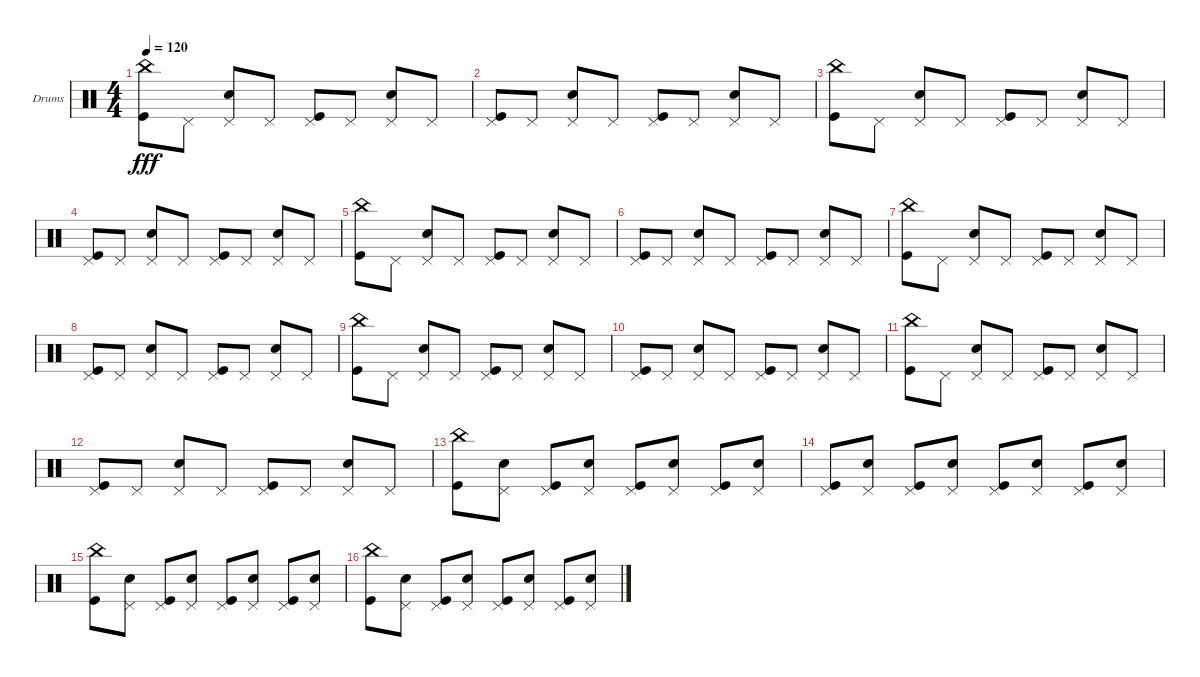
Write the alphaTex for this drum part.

\defaultSystemsLayout 4
\bracketExtendMode groupsimilarinstruments
\firstSystemTrackNameOrientation horizontal
\otherSystemsTrackNameOrientation horizontal
\track ("Drumkit" "Drums") {instrument percussion}
\staff {score}
\articulation defaults
\ts (4 4)
\tempo 120
\clef neutral
\ks c
("Kick (hit)" "China (hit)").8{dy fff} "Pedal Hi-Hat (hit)".8 ("Snare (hit) 2" "Pedal Hi-Hat (hit)").8 "Pedal Hi-Hat (hit)".8 ("Kick (hit)" "Pedal Hi-Hat (hit)").8 "Pedal Hi-Hat (hit)".8 ("Snare (hit) 2" "Pedal Hi-Hat (hit)").8 "Pedal Hi-Hat (hit)".8 |
("Kick (hit)" "Pedal Hi-Hat (hit)").8 "Pedal Hi-Hat (hit)".8 ("Snare (hit) 2" "Pedal Hi-Hat (hit)").8 "Pedal Hi-Hat (hit)".8 ("Kick (hit)" "Pedal Hi-Hat (hit)").8 "Pedal Hi-Hat (hit)".8 ("Snare (hit) 2" "Pedal Hi-Hat (hit)").8 "Pedal Hi-Hat (hit)".8 |
("Kick (hit)" "China (hit)").8 "Pedal Hi-Hat (hit)".8 ("Snare (hit) 2" "Pedal Hi-Hat (hit)").8 "Pedal Hi-Hat (hit)".8 ("Kick (hit)" "Pedal Hi-Hat (hit)").8 "Pedal Hi-Hat (hit)".8 ("Snare (hit) 2" "Pedal Hi-Hat (hit)").8 "Pedal Hi-Hat (hit)".8 |
("Kick (hit)" "Pedal Hi-Hat (hit)").8 "Pedal Hi-Hat (hit)".8 ("Snare (hit) 2" "Pedal Hi-Hat (hit)").8 "Pedal Hi-Hat (hit)".8 ("Kick (hit)" "Pedal Hi-Hat (hit)").8 "Pedal Hi-Hat (hit)".8 ("Snare (hit) 2" "Pedal Hi-Hat (hit)").8 "Pedal Hi-Hat (hit)".8 |
("Kick (hit)" "China (hit)").8 "Pedal Hi-Hat (hit)".8 ("Snare (hit) 2" "Pedal Hi-Hat (hit)").8 "Pedal Hi-Hat (hit)".8 ("Kick (hit)" "Pedal Hi-Hat (hit)").8 "Pedal Hi-Hat (hit)".8 ("Snare (hit) 2" "Pedal Hi-Hat (hit)").8 "Pedal Hi-Hat (hit)".8 |
("Kick (hit)" "Pedal Hi-Hat (hit)").8 "Pedal Hi-Hat (hit)".8 ("Snare (hit) 2" "Pedal Hi-Hat (hit)").8 "Pedal Hi-Hat (hit)".8 ("Kick (hit)" "Pedal Hi-Hat (hit)").8 "Pedal Hi-Hat (hit)".8 ("Snare (hit) 2" "Pedal Hi-Hat (hit)").8 "Pedal Hi-Hat (hit)".8 |
("Kick (hit)" "China (hit)").8 "Pedal Hi-Hat (hit)".8 ("Snare (hit) 2" "Pedal Hi-Hat (hit)").8 "Pedal Hi-Hat (hit)".8 ("Kick (hit)" "Pedal Hi-Hat (hit)").8 "Pedal Hi-Hat (hit)".8 ("Snare (hit) 2" "Pedal Hi-Hat (hit)").8 "Pedal Hi-Hat (hit)".8 |
("Kick (hit)" "Pedal Hi-Hat (hit)").8 "Pedal Hi-Hat (hit)".8 ("Snare (hit) 2" "Pedal Hi-Hat (hit)").8 "Pedal Hi-Hat (hit)".8 ("Kick (hit)" "Pedal Hi-Hat (hit)").8 "Pedal Hi-Hat (hit)".8 ("Snare (hit) 2" "Pedal Hi-Hat (hit)").8 "Pedal Hi-Hat (hit)".8 |
("Kick (hit)" "China (hit)").8 "Pedal Hi-Hat (hit)".8 ("Snare (hit) 2" "Pedal Hi-Hat (hit)").8 "Pedal Hi-Hat (hit)".8 ("Kick (hit)" "Pedal Hi-Hat (hit)").8 "Pedal Hi-Hat (hit)".8 ("Snare (hit) 2" "Pedal Hi-Hat (hit)").8 "Pedal Hi-Hat (hit)".8 |
("Kick (hit)" "Pedal Hi-Hat (hit)").8 "Pedal Hi-Hat (hit)".8 ("Snare (hit) 2" "Pedal Hi-Hat (hit)").8 "Pedal Hi-Hat (hit)".8 ("Kick (hit)" "Pedal Hi-Hat (hit)").8 "Pedal Hi-Hat (hit)".8 ("Snare (hit) 2" "Pedal Hi-Hat (hit)").8 "Pedal Hi-Hat (hit)".8 |
("Kick (hit)" "China (hit)").8 "Pedal Hi-Hat (hit)".8 ("Snare (hit) 2" "Pedal Hi-Hat (hit)").8 "Pedal Hi-Hat (hit)".8 ("Kick (hit)" "Pedal Hi-Hat (hit)").8 "Pedal Hi-Hat (hit)".8 ("Snare (hit) 2" "Pedal Hi-Hat (hit)").8 "Pedal Hi-Hat (hit)".8 |
("Kick (hit)" "Pedal Hi-Hat (hit)").8 "Pedal Hi-Hat (hit)".8 ("Snare (hit) 2" "Pedal Hi-Hat (hit)").8 "Pedal Hi-Hat (hit)".8 ("Kick (hit)" "Pedal Hi-Hat (hit)").8 "Pedal Hi-Hat (hit)".8 ("Snare (hit) 2" "Pedal Hi-Hat (hit)").8 "Pedal Hi-Hat (hit)".8 |
("Kick (hit)" "China (hit)").8 ("Pedal Hi-Hat (hit)" "Snare (hit) 2").8 ("Pedal Hi-Hat (hit)" "Kick (hit)").8 ("Pedal Hi-Hat (hit)" "Snare (hit) 2").8 ("Kick (hit)" "Pedal Hi-Hat (hit)").8 ("Pedal Hi-Hat (hit)" "Snare (hit) 2").8 ("Pedal Hi-Hat (hit)" "Kick (hit)").8 ("Pedal Hi-Hat (hit)" "Snare (hit) 2").8 |
("Kick (hit)" "Pedal Hi-Hat (hit)").8 ("Pedal Hi-Hat (hit)" "Snare (hit) 2").8 ("Pedal Hi-Hat (hit)" "Kick (hit)").8 ("Pedal Hi-Hat (hit)" "Snare (hit) 2").8 ("Kick (hit)" "Pedal Hi-Hat (hit)").8 ("Pedal Hi-Hat (hit)" "Snare (hit) 2").8 ("Pedal Hi-Hat (hit)" "Kick (hit)").8 ("Pedal Hi-Hat (hit)" "Snare (hit) 2").8 |
("Kick (hit)" "China (hit)").8 ("Pedal Hi-Hat (hit)" "Snare (hit) 2").8 ("Pedal Hi-Hat (hit)" "Kick (hit)").8 ("Pedal Hi-Hat (hit)" "Snare (hit) 2").8 ("Kick (hit)" "Pedal Hi-Hat (hit)").8 ("Pedal Hi-Hat (hit)" "Snare (hit) 2").8 ("Pedal Hi-Hat (hit)" "Kick (hit)").8 ("Pedal Hi-Hat (hit)" "Snare (hit) 2").8 |
("Kick (hit)" "China (hit)").8 ("Pedal Hi-Hat (hit)" "Snare (hit) 2").8 ("Pedal Hi-Hat (hit)" "Kick (hit)").8 ("Pedal Hi-Hat (hit)" "Snare (hit) 2").8 ("Kick (hit)" "Pedal Hi-Hat (hit)").8 ("Pedal Hi-Hat (hit)" "Snare (hit) 2").8 ("Pedal Hi-Hat (hit)" "Kick (hit)").8 ("Pedal Hi-Hat (hit)" "Snare (hit) 2").8
